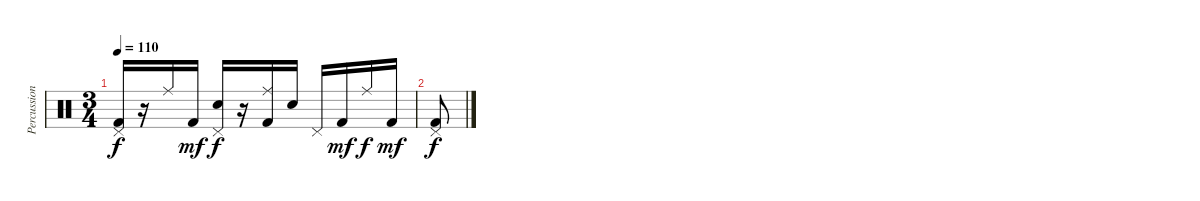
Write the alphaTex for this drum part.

\track ("Percussion" "Percussion") {instrument percussion}
\staff {score}
\articulation defaults
\ts (3 4)
\tempo 110
\clef neutral
\ks c
("Pedal Hi-Hat (hit)" "Kick (hit) 2").16{dy f} r.16 "Ride (middle)".16 "Kick (hit) 2".16{dy mf} ("Electric Snare (hit)" "Pedal Hi-Hat (hit)").16{dy f} r.16 ("Ride (middle)" "Kick (hit) 2").16 "Electric Snare (hit)".16 "Pedal Hi-Hat (hit)".16 "Kick (hit) 2".16{dy mf} "Ride (middle)".16{dy f} "Kick (hit) 2".16{dy mf} |
("Pedal Hi-Hat (hit)" "Kick (hit) 2").8{dy f}
